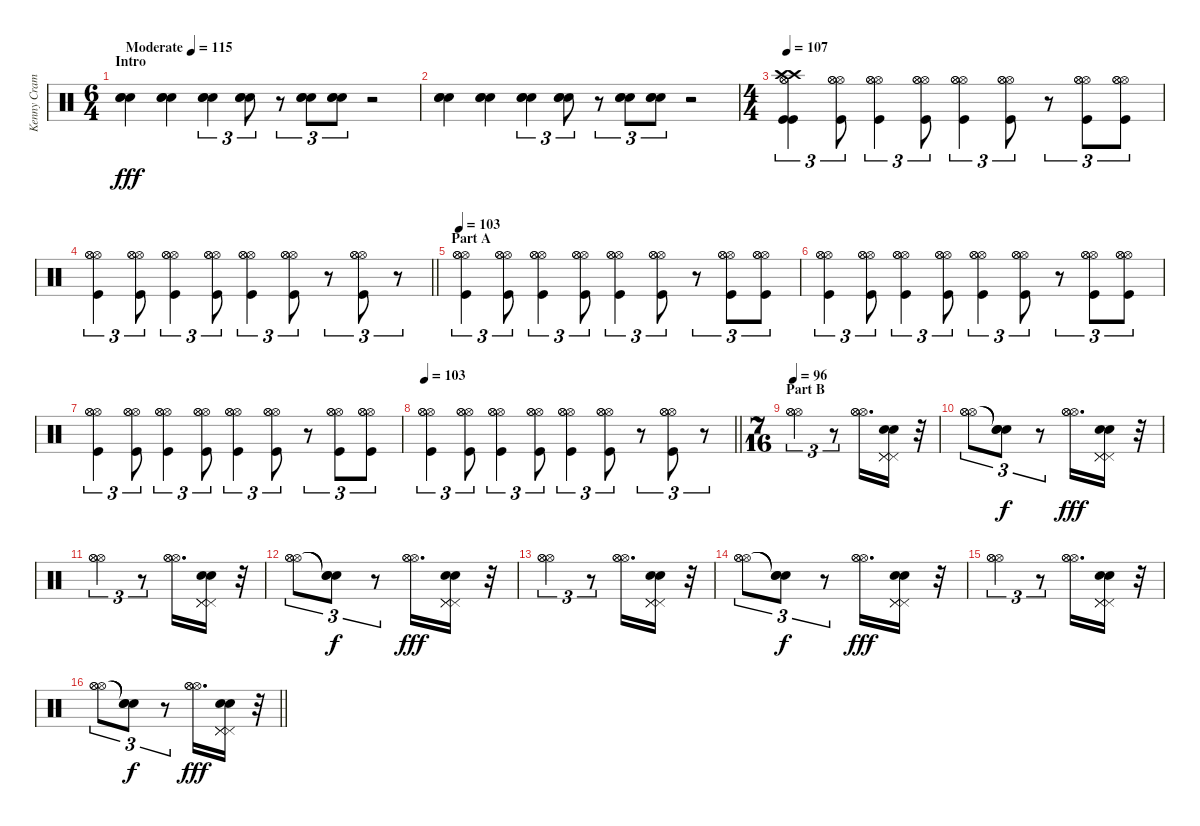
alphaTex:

\track ("Kenny Cramme" "Kenny Cram") {instrument percussion}
\staff {score}
\articulation defaults
\ts (6 4)
\section ("" "Intro")
\tempo (115 "Moderate")
\clef neutral
\ks c
("Snare (hit) 2" "Snare (hit) 2" "Snare (hit) 2").4{dy fff} ("Snare (hit) 2" "Snare (hit) 2" "Snare (hit) 2").4 ("Snare (hit) 2" "Snare (hit) 2" "Snare (hit) 2").4{tu (3 2)} ("Snare (hit) 2" "Snare (hit) 2" "Snare (hit) 2").8{tu (3 2)} r.8{tu (3 2)} ("Snare (hit) 2" "Snare (hit) 2" "Snare (hit) 2").8{tu (3 2)} ("Snare (hit) 2" "Snare (hit) 2" "Snare (hit) 2").8{tu (3 2)} r.2 |
("Snare (hit) 2" "Snare (hit) 2" "Snare (hit) 2").4 ("Snare (hit) 2" "Snare (hit) 2" "Snare (hit) 2").4 ("Snare (hit) 2" "Snare (hit) 2" "Snare (hit) 2").4{tu (3 2)} ("Snare (hit) 2" "Snare (hit) 2" "Snare (hit) 2").8{tu (3 2)} r.8{tu (3 2)} ("Snare (hit) 2" "Snare (hit) 2" "Snare (hit) 2").8{tu (3 2)} ("Snare (hit) 2" "Snare (hit) 2" "Snare (hit) 2").8{tu (3 2)} r.2 |
\ts (4 4)
\tempo 107
("Kick (hit)" "Kick (hit)" "Hi-Hat (open)" "Hi-Hat (open)" "Crash high (hit)" "Crash high (hit)").4{tu (3 2)} ("Kick (hit)" "Hi-Hat (open)" "Hi-Hat (open)" "Hi-Hat (open)").8{tu (3 2)} ("Kick (hit)" "Hi-Hat (open)" "Hi-Hat (open)" "Hi-Hat (open)").4{tu (3 2)} ("Kick (hit)" "Hi-Hat (open)" "Hi-Hat (open)" "Hi-Hat (open)").8{tu (3 2)} ("Kick (hit)" "Hi-Hat (open)" "Hi-Hat (open)" "Hi-Hat (open)").4{tu (3 2)} ("Kick (hit)" "Hi-Hat (open)" "Hi-Hat (open)" "Hi-Hat (open)").8{tu (3 2)} r.8{tu (3 2)} ("Kick (hit)" "Hi-Hat (open)" "Hi-Hat (open)" "Hi-Hat (open)").8{tu (3 2)} ("Kick (hit)" "Hi-Hat (open)" "Hi-Hat (open)" "Hi-Hat (open)").8{tu (3 2)} |
\barLineRight lightlight
("Kick (hit)" "Hi-Hat (open)" "Hi-Hat (open)" "Hi-Hat (open)").4{tu (3 2)} ("Kick (hit)" "Hi-Hat (open)" "Hi-Hat (open)" "Hi-Hat (open)").8{tu (3 2)} ("Kick (hit)" "Hi-Hat (open)" "Hi-Hat (open)" "Hi-Hat (open)").4{tu (3 2)} ("Kick (hit)" "Hi-Hat (open)" "Hi-Hat (open)" "Hi-Hat (open)").8{tu (3 2)} ("Kick (hit)" "Hi-Hat (open)" "Hi-Hat (open)" "Hi-Hat (open)").4{tu (3 2)} ("Kick (hit)" "Hi-Hat (open)" "Hi-Hat (open)" "Hi-Hat (open)").8{tu (3 2)} r.8{tu (3 2)} ("Kick (hit)" "Hi-Hat (open)" "Hi-Hat (open)" "Hi-Hat (open)").8{tu (3 2)} r.8{tu (3 2)} |
\section ("" "Part A")
\tempo 103
("Kick (hit)" "Hi-Hat (open)" "Hi-Hat (open)" "Hi-Hat (open)").4{tu (3 2)} ("Kick (hit)" "Hi-Hat (open)" "Hi-Hat (open)" "Hi-Hat (open)").8{tu (3 2)} ("Kick (hit)" "Hi-Hat (open)" "Hi-Hat (open)" "Hi-Hat (open)").4{tu (3 2)} ("Kick (hit)" "Hi-Hat (open)" "Hi-Hat (open)" "Hi-Hat (open)").8{tu (3 2)} ("Kick (hit)" "Hi-Hat (open)" "Hi-Hat (open)" "Hi-Hat (open)").4{tu (3 2)} ("Kick (hit)" "Hi-Hat (open)" "Hi-Hat (open)" "Hi-Hat (open)").8{tu (3 2)} r.8{tu (3 2)} ("Kick (hit)" "Hi-Hat (open)" "Hi-Hat (open)" "Hi-Hat (open)").8{tu (3 2)} ("Kick (hit)" "Hi-Hat (open)" "Hi-Hat (open)" "Hi-Hat (open)").8{tu (3 2)} |
("Kick (hit)" "Hi-Hat (open)" "Hi-Hat (open)" "Hi-Hat (open)").4{tu (3 2)} ("Kick (hit)" "Hi-Hat (open)" "Hi-Hat (open)" "Hi-Hat (open)").8{tu (3 2)} ("Kick (hit)" "Hi-Hat (open)" "Hi-Hat (open)" "Hi-Hat (open)").4{tu (3 2)} ("Kick (hit)" "Hi-Hat (open)" "Hi-Hat (open)" "Hi-Hat (open)").8{tu (3 2)} ("Kick (hit)" "Hi-Hat (open)" "Hi-Hat (open)" "Hi-Hat (open)").4{tu (3 2)} ("Kick (hit)" "Hi-Hat (open)" "Hi-Hat (open)" "Hi-Hat (open)").8{tu (3 2)} r.8{tu (3 2)} ("Kick (hit)" "Hi-Hat (open)" "Hi-Hat (open)" "Hi-Hat (open)").8{tu (3 2)} ("Kick (hit)" "Hi-Hat (open)" "Hi-Hat (open)" "Hi-Hat (open)").8{tu (3 2)} |
("Kick (hit)" "Hi-Hat (open)" "Hi-Hat (open)" "Hi-Hat (open)").4{tu (3 2)} ("Kick (hit)" "Hi-Hat (open)" "Hi-Hat (open)" "Hi-Hat (open)").8{tu (3 2)} ("Kick (hit)" "Hi-Hat (open)" "Hi-Hat (open)" "Hi-Hat (open)").4{tu (3 2)} ("Kick (hit)" "Hi-Hat (open)" "Hi-Hat (open)" "Hi-Hat (open)").8{tu (3 2)} ("Kick (hit)" "Hi-Hat (open)" "Hi-Hat (open)" "Hi-Hat (open)").4{tu (3 2)} ("Kick (hit)" "Hi-Hat (open)" "Hi-Hat (open)" "Hi-Hat (open)").8{tu (3 2)} r.8{tu (3 2)} ("Kick (hit)" "Hi-Hat (open)" "Hi-Hat (open)" "Hi-Hat (open)").8{tu (3 2)} ("Kick (hit)" "Hi-Hat (open)" "Hi-Hat (open)" "Hi-Hat (open)").8{tu (3 2)} |
\tempo 103
\barLineRight lightlight
("Kick (hit)" "Hi-Hat (open)" "Hi-Hat (open)" "Hi-Hat (open)").4{tu (3 2)} ("Kick (hit)" "Hi-Hat (open)" "Hi-Hat (open)" "Hi-Hat (open)").8{tu (3 2)} ("Kick (hit)" "Hi-Hat (open)" "Hi-Hat (open)" "Hi-Hat (open)").4{tu (3 2)} ("Kick (hit)" "Hi-Hat (open)" "Hi-Hat (open)" "Hi-Hat (open)").8{tu (3 2)} ("Kick (hit)" "Hi-Hat (open)" "Hi-Hat (open)" "Hi-Hat (open)").4{tu (3 2)} ("Kick (hit)" "Hi-Hat (open)" "Hi-Hat (open)" "Hi-Hat (open)").8{tu (3 2)} r.8{tu (3 2)} ("Kick (hit)" "Hi-Hat (open)" "Hi-Hat (open)" "Hi-Hat (open)").8{tu (3 2)} r.8{tu (3 2)} |
\ts (7 16)
\section ("" "Part B")
\tempo 96
("Hi-Hat (open)" "Hi-Hat (open)" "Hi-Hat (open)").4{tu (3 2)} r.8{tu (3 2)} ("Hi-Hat (open)" "Hi-Hat (open)" "Hi-Hat (open)").16{d} ("Pedal Hi-Hat (hit)" "Pedal Hi-Hat (hit)" "Pedal Hi-Hat (hit)" "Snare (hit) 2" "Snare (hit) 2").16 r.32 |
("Hi-Hat (open)" "Hi-Hat (open)" "Hi-Hat (open)").8{tu (3 2)} ("Snare (hit)"{t} "Snare (hit)"{t} "Snare (hit)"{t}).8{tu (3 2) dy f} r.8{tu (3 2)} ("Hi-Hat (open)" "Hi-Hat (open)" "Hi-Hat (open)").16{d dy fff} ("Pedal Hi-Hat (hit)" "Pedal Hi-Hat (hit)" "Pedal Hi-Hat (hit)" "Snare (hit) 2" "Snare (hit) 2").16 r.32 |
("Hi-Hat (open)" "Hi-Hat (open)" "Hi-Hat (open)").4{tu (3 2)} r.8{tu (3 2)} ("Hi-Hat (open)" "Hi-Hat (open)" "Hi-Hat (open)").16{d} ("Pedal Hi-Hat (hit)" "Pedal Hi-Hat (hit)" "Pedal Hi-Hat (hit)" "Snare (hit) 2" "Snare (hit) 2").16 r.32 |
("Hi-Hat (open)" "Hi-Hat (open)" "Hi-Hat (open)").8{tu (3 2)} ("Snare (hit)"{t} "Snare (hit)"{t} "Snare (hit)"{t}).8{tu (3 2) dy f} r.8{tu (3 2)} ("Hi-Hat (open)" "Hi-Hat (open)" "Hi-Hat (open)").16{d dy fff} ("Pedal Hi-Hat (hit)" "Pedal Hi-Hat (hit)" "Pedal Hi-Hat (hit)" "Snare (hit) 2" "Snare (hit) 2").16 r.32 |
("Hi-Hat (open)" "Hi-Hat (open)" "Hi-Hat (open)").4{tu (3 2)} r.8{tu (3 2)} ("Hi-Hat (open)" "Hi-Hat (open)" "Hi-Hat (open)").16{d} ("Pedal Hi-Hat (hit)" "Pedal Hi-Hat (hit)" "Pedal Hi-Hat (hit)" "Snare (hit) 2" "Snare (hit) 2").16 r.32 |
("Hi-Hat (open)" "Hi-Hat (open)" "Hi-Hat (open)").8{tu (3 2)} ("Snare (hit)"{t} "Snare (hit)"{t} "Snare (hit)"{t}).8{tu (3 2) dy f} r.8{tu (3 2)} ("Hi-Hat (open)" "Hi-Hat (open)" "Hi-Hat (open)").16{d dy fff} ("Pedal Hi-Hat (hit)" "Pedal Hi-Hat (hit)" "Pedal Hi-Hat (hit)" "Snare (hit) 2" "Snare (hit) 2").16 r.32 |
("Hi-Hat (open)" "Hi-Hat (open)" "Hi-Hat (open)").4{tu (3 2)} r.8{tu (3 2)} ("Hi-Hat (open)" "Hi-Hat (open)" "Hi-Hat (open)").16{d} ("Pedal Hi-Hat (hit)" "Pedal Hi-Hat (hit)" "Pedal Hi-Hat (hit)" "Snare (hit) 2" "Snare (hit) 2").16 r.32 |
\barLineRight lightlight
("Hi-Hat (open)" "Hi-Hat (open)" "Hi-Hat (open)").8{tu (3 2)} ("Snare (hit)"{t} "Snare (hit)"{t} "Snare (hit)"{t}).8{tu (3 2) dy f} r.8{tu (3 2)} ("Hi-Hat (open)" "Hi-Hat (open)" "Hi-Hat (open)").16{d dy fff} ("Pedal Hi-Hat (hit)" "Pedal Hi-Hat (hit)" "Pedal Hi-Hat (hit)" "Snare (hit) 2" "Snare (hit) 2").16 r.32
